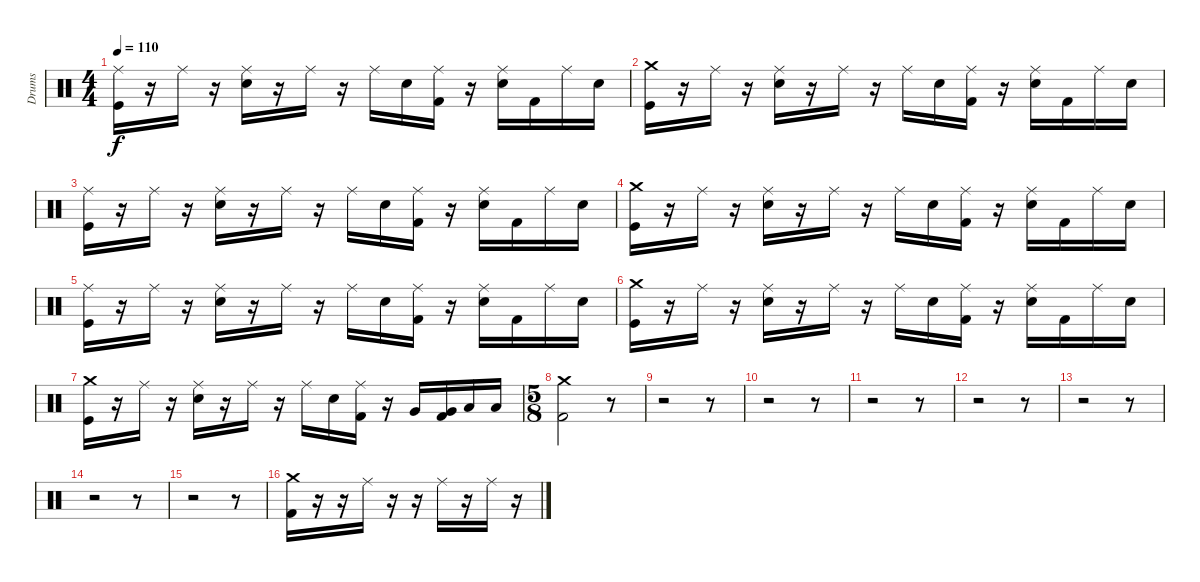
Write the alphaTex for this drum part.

\track ("Drums" "Drums") {instrument percussion}
\staff {score}
\articulation defaults
\ts (4 4)
\tempo 110
\clef neutral
\ks c
("Ride (middle)" "Kick (hit)").16{dy f} r.16 "Ride (middle)".16 r.16 ("Ride (middle)" "Electric Snare (hit)").16 r.16 "Ride (middle)".16 r.16 "Ride (middle)".16 "Electric Snare (hit)".16 ("Ride (middle)" "Kick (hit) 2").16 r.16 ("Ride (middle)" "Electric Snare (hit)").16 "Kick (hit) 2".16 "Ride (middle)".16 "Electric Snare (hit)".16 |
("Crash medium (hit)" "Kick (hit)").16 r.16 "Ride (middle)".16 r.16 ("Ride (middle)" "Electric Snare (hit)").16 r.16 "Ride (middle)".16 r.16 "Ride (middle)".16 "Electric Snare (hit)".16 ("Ride (middle)" "Kick (hit) 2").16 r.16 ("Ride (middle)" "Electric Snare (hit)").16 "Kick (hit) 2".16 "Ride (middle)".16 "Electric Snare (hit)".16 |
("Ride (middle)" "Kick (hit)").16 r.16 "Ride (middle)".16 r.16 ("Ride (middle)" "Electric Snare (hit)").16 r.16 "Ride (middle)".16 r.16 "Ride (middle)".16 "Electric Snare (hit)".16 ("Ride (middle)" "Kick (hit) 2").16 r.16 ("Ride (middle)" "Electric Snare (hit)").16 "Kick (hit) 2".16 "Ride (middle)".16 "Electric Snare (hit)".16 |
("Crash medium (hit)" "Kick (hit)").16 r.16 "Ride (middle)".16 r.16 ("Ride (middle)" "Electric Snare (hit)").16 r.16 "Ride (middle)".16 r.16 "Ride (middle)".16 "Electric Snare (hit)".16 ("Ride (middle)" "Kick (hit) 2").16 r.16 ("Ride (middle)" "Electric Snare (hit)").16 "Kick (hit) 2".16 "Ride (middle)".16 "Electric Snare (hit)".16 |
("Ride (middle)" "Kick (hit)").16 r.16 "Ride (middle)".16 r.16 ("Ride (middle)" "Electric Snare (hit)").16 r.16 "Ride (middle)".16 r.16 "Ride (middle)".16 "Electric Snare (hit)".16 ("Ride (middle)" "Kick (hit) 2").16 r.16 ("Ride (middle)" "Electric Snare (hit)").16 "Kick (hit) 2".16 "Ride (middle)".16 "Electric Snare (hit)".16 |
("Crash medium (hit)" "Kick (hit)").16 r.16 "Ride (middle)".16 r.16 ("Ride (middle)" "Electric Snare (hit)").16 r.16 "Ride (middle)".16 r.16 "Ride (middle)".16 "Electric Snare (hit)".16 ("Ride (middle)" "Kick (hit) 2").16 r.16 ("Ride (middle)" "Electric Snare (hit)").16 "Kick (hit) 2".16 "Ride (middle)".16 "Electric Snare (hit)".16 |
("Crash medium (hit)" "Kick (hit)").16 r.16 "Ride (middle)".16 r.16 ("Ride (middle)" "Electric Snare (hit)").16 r.16 "Ride (middle)".16 r.16 "Ride (middle)".16 "Electric Snare (hit)".16 ("Ride (middle)" "Kick (hit) 2").16 r.16 "Very Low Tom (hit)".16 ("Very Low Tom (hit)" "Kick (hit) 2").16 "Low Floor Tom (hit)".16 "Low Floor Tom (hit)".16 |
\ts (5 8)
("Crash medium (hit)" "Kick (hit) 2").2 r.8 |
r.2 r.8 |
r.2 r.8 |
r.2 r.8 |
r.2 r.8 |
r.2 r.8 |
r.2 r.8 |
r.2 r.8 |
("Crash medium (hit)" "Kick (hit) 2").16 r.16 r.16 "Ride (middle)".16 r.16 r.16 "Ride (middle)".16 r.16 "Ride (middle)".16 r.16
